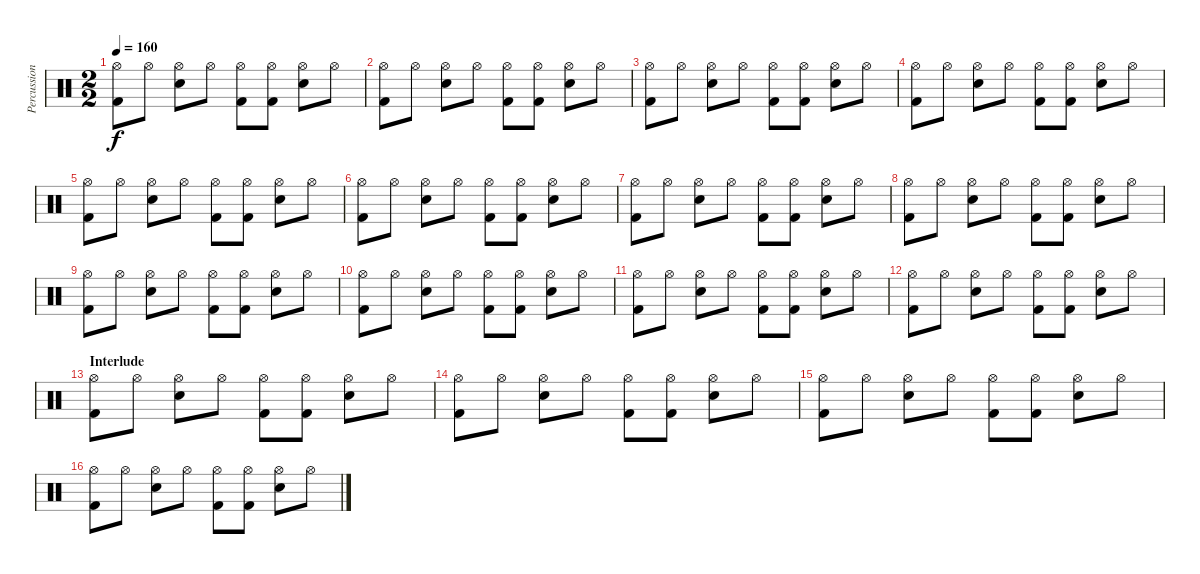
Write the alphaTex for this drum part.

\track ("Percussion" "Percussion") {instrument percussion}
\staff {score}
\articulation defaults
\ts (2 2)
\tempo 160
\clef neutral
\ks c
("Hi-Hat (open)" "Kick (hit) 2").8{dy f} "Hi-Hat (open)".8 ("Hi-Hat (open)" "Snare (hit) 2").8 "Hi-Hat (open)".8 ("Hi-Hat (open)" "Kick (hit) 2").8 ("Hi-Hat (open)" "Kick (hit) 2").8 ("Hi-Hat (open)" "Snare (hit) 2").8 "Hi-Hat (open)".8 |
("Hi-Hat (open)" "Kick (hit) 2").8 "Hi-Hat (open)".8 ("Hi-Hat (open)" "Snare (hit) 2").8 "Hi-Hat (open)".8 ("Hi-Hat (open)" "Kick (hit) 2").8 ("Hi-Hat (open)" "Kick (hit) 2").8 ("Hi-Hat (open)" "Snare (hit) 2").8 "Hi-Hat (open)".8 |
("Hi-Hat (open)" "Kick (hit) 2").8 "Hi-Hat (open)".8 ("Hi-Hat (open)" "Snare (hit) 2").8 "Hi-Hat (open)".8 ("Hi-Hat (open)" "Kick (hit) 2").8 ("Hi-Hat (open)" "Kick (hit) 2").8 ("Hi-Hat (open)" "Snare (hit) 2").8 "Hi-Hat (open)".8 |
("Hi-Hat (open)" "Kick (hit) 2").8 "Hi-Hat (open)".8 ("Hi-Hat (open)" "Snare (hit) 2").8 "Hi-Hat (open)".8 ("Hi-Hat (open)" "Kick (hit) 2").8 ("Hi-Hat (open)" "Kick (hit) 2").8 ("Hi-Hat (open)" "Snare (hit) 2").8 "Hi-Hat (open)".8 |
("Hi-Hat (open)" "Kick (hit) 2").8 "Hi-Hat (open)".8 ("Hi-Hat (open)" "Snare (hit) 2").8 "Hi-Hat (open)".8 ("Hi-Hat (open)" "Kick (hit) 2").8 ("Hi-Hat (open)" "Kick (hit) 2").8 ("Hi-Hat (open)" "Snare (hit) 2").8 "Hi-Hat (open)".8 |
("Hi-Hat (open)" "Kick (hit) 2").8 "Hi-Hat (open)".8 ("Hi-Hat (open)" "Snare (hit) 2").8 "Hi-Hat (open)".8 ("Hi-Hat (open)" "Kick (hit) 2").8 ("Hi-Hat (open)" "Kick (hit) 2").8 ("Hi-Hat (open)" "Snare (hit) 2").8 "Hi-Hat (open)".8 |
("Hi-Hat (open)" "Kick (hit) 2").8 "Hi-Hat (open)".8 ("Hi-Hat (open)" "Snare (hit) 2").8 "Hi-Hat (open)".8 ("Hi-Hat (open)" "Kick (hit) 2").8 ("Hi-Hat (open)" "Kick (hit) 2").8 ("Hi-Hat (open)" "Snare (hit) 2").8 "Hi-Hat (open)".8 |
("Hi-Hat (open)" "Kick (hit) 2").8 "Hi-Hat (open)".8 ("Hi-Hat (open)" "Snare (hit) 2").8 "Hi-Hat (open)".8 ("Hi-Hat (open)" "Kick (hit) 2").8 ("Hi-Hat (open)" "Kick (hit) 2").8 ("Hi-Hat (open)" "Snare (hit) 2").8 "Hi-Hat (open)".8 |
("Hi-Hat (open)" "Kick (hit) 2").8 "Hi-Hat (open)".8 ("Hi-Hat (open)" "Snare (hit) 2").8 "Hi-Hat (open)".8 ("Hi-Hat (open)" "Kick (hit) 2").8 ("Hi-Hat (open)" "Kick (hit) 2").8 ("Hi-Hat (open)" "Snare (hit) 2").8 "Hi-Hat (open)".8 |
("Hi-Hat (open)" "Kick (hit) 2").8 "Hi-Hat (open)".8 ("Hi-Hat (open)" "Snare (hit) 2").8 "Hi-Hat (open)".8 ("Hi-Hat (open)" "Kick (hit) 2").8 ("Hi-Hat (open)" "Kick (hit) 2").8 ("Hi-Hat (open)" "Snare (hit) 2").8 "Hi-Hat (open)".8 |
("Hi-Hat (open)" "Kick (hit) 2").8 "Hi-Hat (open)".8 ("Hi-Hat (open)" "Snare (hit) 2").8 "Hi-Hat (open)".8 ("Hi-Hat (open)" "Kick (hit) 2").8 ("Hi-Hat (open)" "Kick (hit) 2").8 ("Hi-Hat (open)" "Snare (hit) 2").8 "Hi-Hat (open)".8 |
("Hi-Hat (open)" "Kick (hit) 2").8 "Hi-Hat (open)".8 ("Hi-Hat (open)" "Snare (hit) 2").8 "Hi-Hat (open)".8 ("Hi-Hat (open)" "Kick (hit) 2").8 ("Hi-Hat (open)" "Kick (hit) 2").8 ("Hi-Hat (open)" "Snare (hit) 2").8 "Hi-Hat (open)".8 |
\section ("" "Interlude")
("Hi-Hat (open)" "Kick (hit) 2").8 "Hi-Hat (open)".8 ("Hi-Hat (open)" "Snare (hit) 2").8 "Hi-Hat (open)".8 ("Hi-Hat (open)" "Kick (hit) 2").8 ("Hi-Hat (open)" "Kick (hit) 2").8 ("Hi-Hat (open)" "Snare (hit) 2").8 "Hi-Hat (open)".8 |
("Hi-Hat (open)" "Kick (hit) 2").8 "Hi-Hat (open)".8 ("Hi-Hat (open)" "Snare (hit) 2").8 "Hi-Hat (open)".8 ("Hi-Hat (open)" "Kick (hit) 2").8 ("Hi-Hat (open)" "Kick (hit) 2").8 ("Hi-Hat (open)" "Snare (hit) 2").8 "Hi-Hat (open)".8 |
("Hi-Hat (open)" "Kick (hit) 2").8 "Hi-Hat (open)".8 ("Hi-Hat (open)" "Snare (hit) 2").8 "Hi-Hat (open)".8 ("Hi-Hat (open)" "Kick (hit) 2").8 ("Hi-Hat (open)" "Kick (hit) 2").8 ("Hi-Hat (open)" "Snare (hit) 2").8 "Hi-Hat (open)".8 |
("Hi-Hat (open)" "Kick (hit) 2").8 "Hi-Hat (open)".8 ("Hi-Hat (open)" "Snare (hit) 2").8 "Hi-Hat (open)".8 ("Hi-Hat (open)" "Kick (hit) 2").8 ("Hi-Hat (open)" "Kick (hit) 2").8 ("Hi-Hat (open)" "Snare (hit) 2").8 "Hi-Hat (open)".8
